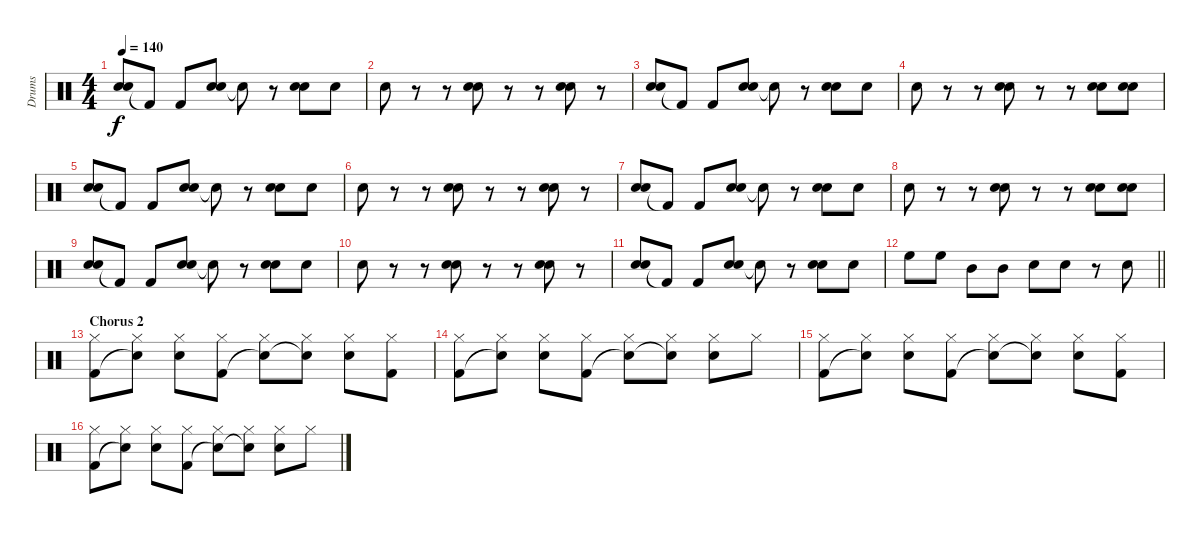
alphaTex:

\track ("Drums" "Drums") {instrument percussion}
\staff {score}
\articulation defaults
\ts (4 4)
\tempo 140
\clef neutral
\ks c
("Snare (hit) 2" "Hand Clap (hit)").8{dy f} "Kick (hit) 2"{t}.8 "Kick (hit) 2".8 ("Snare (hit) 2" "Hand Clap (hit)").8 "Snare (hit)"{t}.8 r.8 ("Snare (hit) 2" "Hand Clap (hit)").8 "Snare (hit) 2".8 |
"Snare (hit) 2".8 r.8 r.8 ("Snare (hit) 2" "Hand Clap (hit)").8 r.8 r.8 ("Snare (hit) 2" "Hand Clap (hit)").8 r.8 |
("Snare (hit) 2" "Hand Clap (hit)").8 "Kick (hit) 2"{t}.8 "Kick (hit) 2".8 ("Snare (hit) 2" "Hand Clap (hit)").8 "Snare (hit)"{t}.8 r.8 ("Snare (hit) 2" "Hand Clap (hit)").8 "Snare (hit) 2".8 |
"Snare (hit) 2".8 r.8 r.8 ("Snare (hit) 2" "Hand Clap (hit)").8 r.8 r.8 ("Snare (hit) 2" "Hand Clap (hit)").8 ("Snare (hit) 2" "Hand Clap (hit)").8 |
("Snare (hit) 2" "Hand Clap (hit)").8 "Kick (hit) 2"{t}.8 "Kick (hit) 2".8 ("Snare (hit) 2" "Hand Clap (hit)").8 "Snare (hit)"{t}.8 r.8 ("Snare (hit) 2" "Hand Clap (hit)").8 "Snare (hit) 2".8 |
"Snare (hit) 2".8 r.8 r.8 ("Snare (hit) 2" "Hand Clap (hit)").8 r.8 r.8 ("Snare (hit) 2" "Hand Clap (hit)").8 r.8 |
("Snare (hit) 2" "Hand Clap (hit)").8 "Kick (hit) 2"{t}.8 "Kick (hit) 2".8 ("Snare (hit) 2" "Hand Clap (hit)").8 "Snare (hit)"{t}.8 r.8 ("Snare (hit) 2" "Hand Clap (hit)").8 "Snare (hit) 2".8 |
"Snare (hit) 2".8 r.8 r.8 ("Snare (hit) 2" "Hand Clap (hit)").8 r.8 r.8 ("Snare (hit) 2" "Hand Clap (hit)").8 ("Snare (hit) 2" "Hand Clap (hit)").8 |
("Snare (hit) 2" "Hand Clap (hit)").8 "Kick (hit) 2"{t}.8 "Kick (hit) 2".8 ("Snare (hit) 2" "Hand Clap (hit)").8 "Snare (hit)"{t}.8 r.8 ("Snare (hit) 2" "Hand Clap (hit)").8 "Snare (hit) 2".8 |
"Snare (hit) 2".8 r.8 r.8 ("Snare (hit) 2" "Hand Clap (hit)").8 r.8 r.8 ("Snare (hit) 2" "Hand Clap (hit)").8 r.8 |
("Snare (hit) 2" "Hand Clap (hit)").8 "Kick (hit) 2"{t}.8 "Kick (hit) 2".8 ("Snare (hit) 2" "Hand Clap (hit)").8 "Snare (hit)"{t}.8 r.8 ("Snare (hit) 2" "Hand Clap (hit)").8 "Snare (hit) 2".8 |
\barLineRight lightlight "High Floor Tom (hit)".8 "High Floor Tom (hit)".8 "Mid Tom (hit)".8 "Mid Tom (hit)".8 "Snare (hit) 2".8 "Snare (hit) 2".8
r.8 "Snare (hit) 2".8 |
\section ("" "Chorus 2")
("Hi-Hat (closed)" "Kick (hit) 2").8 ("Hi-Hat (closed)" "Snare (hit)"{t}).8 ("Hi-Hat (closed)" "Snare (hit) 2").8 ("Hi-Hat (closed)" "Kick (hit) 2").8 ("Hi-Hat (closed)" "Snare (hit)"{t}).8 ("Hi-Hat (closed)" "Snare (hit) 2"{t}).8 ("Hi-Hat (closed)" "Snare (hit) 2").8 ("Hi-Hat (closed)" "Kick (hit) 2").8 |
("Hi-Hat (closed)" "Kick (hit) 2").8 ("Hi-Hat (closed)" "Snare (hit)"{t}).8 ("Hi-Hat (closed)" "Snare (hit) 2").8 ("Hi-Hat (closed)" "Kick (hit) 2").8 ("Hi-Hat (closed)" "Snare (hit)"{t}).8 ("Hi-Hat (closed)" "Snare (hit) 2"{t}).8 ("Hi-Hat (closed)" "Snare (hit) 2").8 "Hi-Hat (closed)".8 |
("Hi-Hat (closed)" "Kick (hit) 2").8 ("Hi-Hat (closed)" "Snare (hit)"{t}).8 ("Hi-Hat (closed)" "Snare (hit) 2").8 ("Hi-Hat (closed)" "Kick (hit) 2").8 ("Hi-Hat (closed)" "Snare (hit)"{t}).8 ("Hi-Hat (closed)" "Snare (hit) 2"{t}).8 ("Hi-Hat (closed)" "Snare (hit) 2").8 ("Hi-Hat (closed)" "Kick (hit) 2").8 |
("Hi-Hat (closed)" "Kick (hit) 2").8 ("Hi-Hat (closed)" "Snare (hit)"{t}).8 ("Hi-Hat (closed)" "Snare (hit) 2").8 ("Hi-Hat (closed)" "Kick (hit) 2").8 ("Hi-Hat (closed)" "Snare (hit)"{t}).8 ("Hi-Hat (closed)" "Snare (hit) 2"{t}).8 ("Hi-Hat (closed)" "Snare (hit) 2").8 "Hi-Hat (closed)".8
